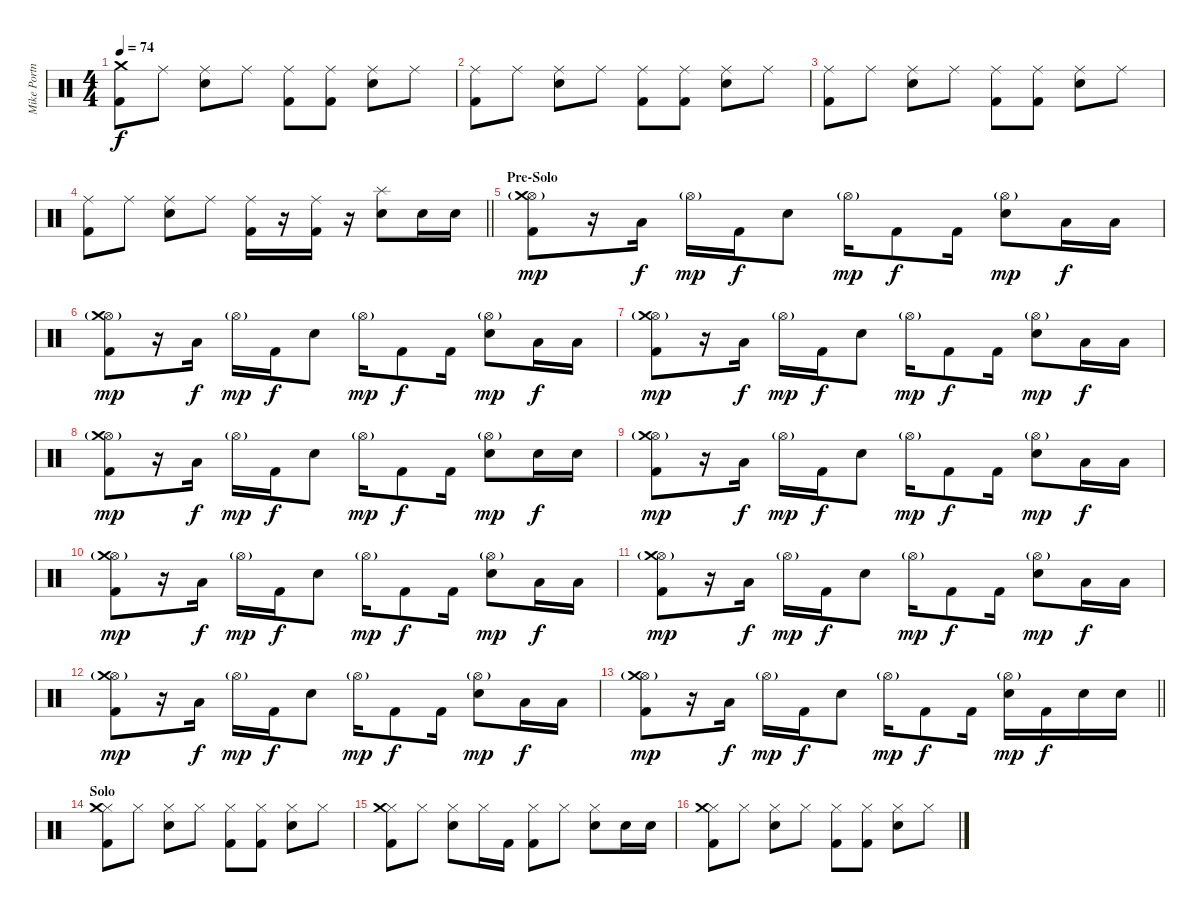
\track ("Mike Portnoy" "Mike Portn") {instrument percussion}
\staff {score}
\articulation defaults
\ts (4 4)
\tempo 74
\clef neutral
\ks c
("Crash medium (hit)" "Kick (hit) 2").8{dy f} "Ride (middle)".8 ("Ride (middle)" "Electric Snare (hit)").8 "Ride (middle)".8 ("Ride (middle)" "Kick (hit) 2").8 ("Ride (middle)" "Kick (hit) 2").8 ("Ride (middle)" "Electric Snare (hit)").8 "Ride (middle)".8 |
("Ride (middle)" "Kick (hit) 2").8 "Ride (middle)".8 ("Ride (middle)" "Electric Snare (hit)").8 "Ride (middle)".8 ("Ride (middle)" "Kick (hit) 2").8 ("Ride (middle)" "Kick (hit) 2").8 ("Ride (middle)" "Electric Snare (hit)").8 "Ride (middle)".8 |
("Ride (middle)" "Kick (hit) 2").8 "Ride (middle)".8 ("Ride (middle)" "Electric Snare (hit)").8 "Ride (middle)".8 ("Ride (middle)" "Kick (hit) 2").8 ("Ride (middle)" "Kick (hit) 2").8 ("Ride (middle)" "Electric Snare (hit)").8 "Ride (middle)".8 |
\barLineRight lightlight
("Ride (middle)" "Kick (hit) 2").8 "Ride (middle)".8 ("Ride (middle)" "Electric Snare (hit)").8 "Ride (middle)".8 ("Ride (middle)" "Kick (hit) 2").16 r.16 ("Ride (middle)" "Kick (hit) 2").16 r.16 ("Splash (hit)" "Electric Snare (hit)").8 "Electric Snare (hit)".16 "Electric Snare (hit)".16 |
\section ("" "Pre-Solo")
("Hi-Hat (open)"{g} "Crash medium (hit)" "Kick (hit) 2").8{dy mp} r.16 "Low Tom (hit)".16{dy f} "Hi-Hat (open)"{g}.16{dy mp} "Kick (hit) 2".16{dy f} "Electric Snare (hit)".8 "Hi-Hat (open)"{g}.16{dy mp} "Kick (hit) 2".8{dy f} "Kick (hit) 2".16 ("Hi-Hat (open)"{g} "Electric Snare (hit)").8{dy mp} "Low Tom (hit)".16{dy f} "Low Tom (hit)".16 |
("Hi-Hat (open)"{g} "Crash medium (hit)" "Kick (hit) 2").8{dy mp} r.16 "Low Tom (hit)".16{dy f} "Hi-Hat (open)"{g}.16{dy mp} "Kick (hit) 2".16{dy f} "Electric Snare (hit)".8 "Hi-Hat (open)"{g}.16{dy mp} "Kick (hit) 2".8{dy f} "Kick (hit) 2".16 ("Hi-Hat (open)"{g} "Electric Snare (hit)").8{dy mp} "Low Tom (hit)".16{dy f} "Low Tom (hit)".16 |
("Hi-Hat (open)"{g} "Crash medium (hit)" "Kick (hit) 2").8{dy mp} r.16 "Low Tom (hit)".16{dy f} "Hi-Hat (open)"{g}.16{dy mp} "Kick (hit) 2".16{dy f} "Electric Snare (hit)".8 "Hi-Hat (open)"{g}.16{dy mp} "Kick (hit) 2".8{dy f} "Kick (hit) 2".16 ("Hi-Hat (open)"{g} "Electric Snare (hit)").8{dy mp} "Low Tom (hit)".16{dy f} "Low Tom (hit)".16 |
("Hi-Hat (open)"{g} "Crash medium (hit)" "Kick (hit) 2").8{dy mp} r.16 "Low Tom (hit)".16{dy f} "Hi-Hat (open)"{g}.16{dy mp} "Kick (hit) 2".16{dy f} "Electric Snare (hit)".8 "Hi-Hat (open)"{g}.16{dy mp} "Kick (hit) 2".8{dy f} "Kick (hit) 2".16 ("Hi-Hat (open)"{g} "Electric Snare (hit)").8{dy mp} "Electric Snare (hit)".16{dy f} "Electric Snare (hit)".16 |
("Hi-Hat (open)"{g} "Crash medium (hit)" "Kick (hit) 2").8{dy mp} r.16 "Low Tom (hit)".16{dy f} "Hi-Hat (open)"{g}.16{dy mp} "Kick (hit) 2".16{dy f} "Electric Snare (hit)".8 "Hi-Hat (open)"{g}.16{dy mp} "Kick (hit) 2".8{dy f} "Kick (hit) 2".16 ("Hi-Hat (open)"{g} "Electric Snare (hit)").8{dy mp} "Low Tom (hit)".16{dy f} "Low Tom (hit)".16 |
("Hi-Hat (open)"{g} "Crash medium (hit)" "Kick (hit) 2").8{dy mp} r.16 "Low Tom (hit)".16{dy f} "Hi-Hat (open)"{g}.16{dy mp} "Kick (hit) 2".16{dy f} "Electric Snare (hit)".8 "Hi-Hat (open)"{g}.16{dy mp} "Kick (hit) 2".8{dy f} "Kick (hit) 2".16 ("Hi-Hat (open)"{g} "Electric Snare (hit)").8{dy mp} "Low Tom (hit)".16{dy f} "Low Tom (hit)".16 |
("Hi-Hat (open)"{g} "Crash medium (hit)" "Kick (hit) 2").8{dy mp} r.16 "Low Tom (hit)".16{dy f} "Hi-Hat (open)"{g}.16{dy mp} "Kick (hit) 2".16{dy f} "Electric Snare (hit)".8 "Hi-Hat (open)"{g}.16{dy mp} "Kick (hit) 2".8{dy f} "Kick (hit) 2".16 ("Hi-Hat (open)"{g} "Electric Snare (hit)").8{dy mp} "Low Tom (hit)".16{dy f} "Low Tom (hit)".16 |
("Hi-Hat (open)"{g} "Crash medium (hit)" "Kick (hit) 2").8{dy mp} r.16 "Low Tom (hit)".16{dy f} "Hi-Hat (open)"{g}.16{dy mp} "Kick (hit) 2".16{dy f} "Electric Snare (hit)".8 "Hi-Hat (open)"{g}.16{dy mp} "Kick (hit) 2".8{dy f} "Kick (hit) 2".16 ("Hi-Hat (open)"{g} "Electric Snare (hit)").8{dy mp} "Low Tom (hit)".16{dy f} "Low Tom (hit)".16 |
\barLineRight lightlight
("Hi-Hat (open)"{g} "Crash medium (hit)" "Kick (hit) 2").8{dy mp} r.16 "Low Tom (hit)".16{dy f} "Hi-Hat (open)"{g}.16{dy mp} "Kick (hit) 2".16{dy f} "Electric Snare (hit)".8 "Hi-Hat (open)"{g}.16{dy mp} "Kick (hit) 2".8{dy f} "Kick (hit) 2".16 ("Hi-Hat (open)"{g} "Electric Snare (hit)").16{dy mp} "Kick (hit) 2".16{dy f} "Electric Snare (hit)".16 "Electric Snare (hit)".16 |
\section ("" "Solo")
("Hi-Hat (closed)" "Crash medium (hit)" "Kick (hit) 2").8 "Hi-Hat (closed)".8 ("Hi-Hat (closed)" "Electric Snare (hit)").8 "Hi-Hat (closed)".8 ("Hi-Hat (closed)" "Kick (hit) 2").8 ("Hi-Hat (closed)" "Kick (hit) 2").8 ("Hi-Hat (closed)" "Electric Snare (hit)").8 "Hi-Hat (closed)".8 |
("Hi-Hat (closed)" "Crash medium (hit)" "Kick (hit) 2").8 "Hi-Hat (closed)".8 ("Hi-Hat (closed)" "Electric Snare (hit)").8 "Hi-Hat (closed)".16 "Kick (hit) 2".16 ("Hi-Hat (closed)" "Kick (hit) 2").8 "Hi-Hat (closed)".8 ("Hi-Hat (closed)" "Electric Snare (hit)").8 "Electric Snare (hit)".16 "Electric Snare (hit)".16 |
("Hi-Hat (closed)" "Crash medium (hit)" "Kick (hit) 2").8 "Hi-Hat (closed)".8 ("Hi-Hat (closed)" "Electric Snare (hit)").8 "Hi-Hat (closed)".8 ("Hi-Hat (closed)" "Kick (hit) 2").8 ("Hi-Hat (closed)" "Kick (hit) 2").8 ("Hi-Hat (closed)" "Electric Snare (hit)").8 "Hi-Hat (closed)".8
